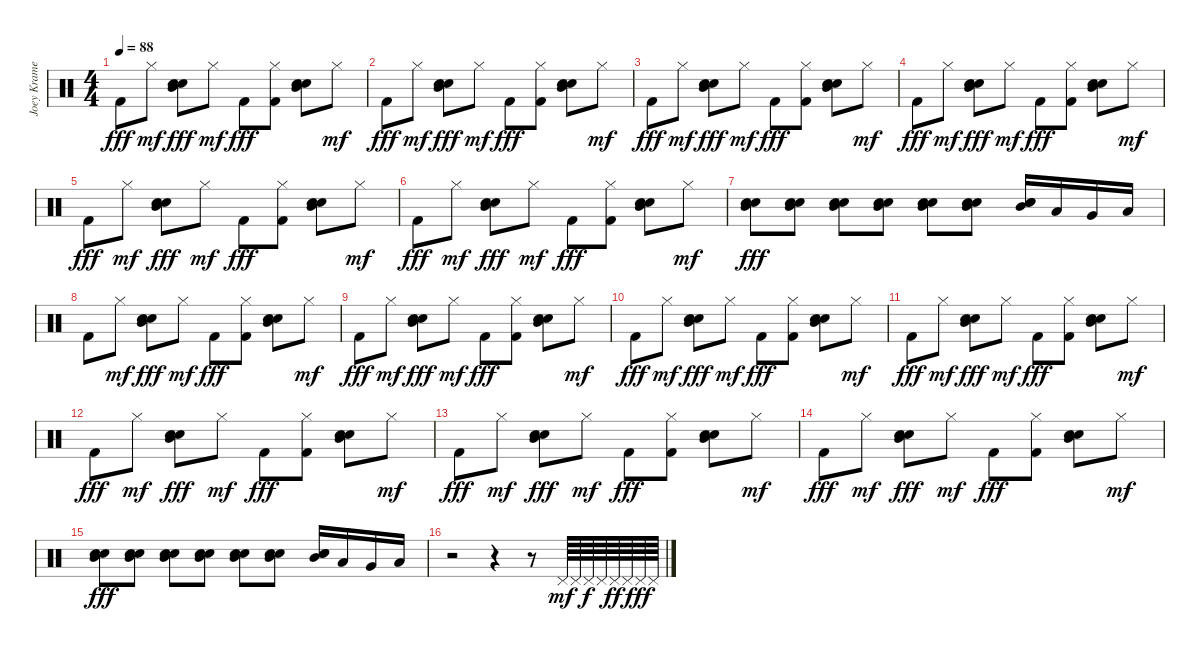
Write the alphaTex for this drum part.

\track ("Joey Kramer" "Joey Krame") {instrument percussion}
\staff {score}
\articulation defaults
\ts (4 4)
\tempo 88
\clef neutral
\ks c "Kick (hit) 2".8{dy fff} "Hi-Hat (closed)".8{dy mf}
("Snare (hit) 2" "Electric Snare (hit)" "Mid Tom (hit)").8{dy fff} "Hi-Hat (closed)".8{dy mf} "Kick (hit) 2".8{dy fff} ("Hi-Hat (closed)" "Kick (hit) 2").8 ("Snare (hit) 2" "Electric Snare (hit)" "Mid Tom (hit)").8 "Hi-Hat (closed)".8{dy mf} |
"Kick (hit) 2".8{dy fff} "Hi-Hat (closed)".8{dy mf} ("Snare (hit) 2" "Electric Snare (hit)" "Mid Tom (hit)").8{dy fff} "Hi-Hat (closed)".8{dy mf} "Kick (hit) 2".8{dy fff} ("Hi-Hat (closed)" "Kick (hit) 2").8 ("Snare (hit) 2" "Electric Snare (hit)" "Mid Tom (hit)").8 "Hi-Hat (closed)".8{dy mf} |
"Kick (hit) 2".8{dy fff} "Hi-Hat (closed)".8{dy mf} ("Snare (hit) 2" "Electric Snare (hit)" "Mid Tom (hit)").8{dy fff} "Hi-Hat (closed)".8{dy mf} "Kick (hit) 2".8{dy fff} ("Hi-Hat (closed)" "Kick (hit) 2").8 ("Snare (hit) 2" "Electric Snare (hit)" "Mid Tom (hit)").8 "Hi-Hat (closed)".8{dy mf} |
"Kick (hit) 2".8{dy fff} "Hi-Hat (closed)".8{dy mf} ("Snare (hit) 2" "Electric Snare (hit)" "Mid Tom (hit)").8{dy fff} "Hi-Hat (closed)".8{dy mf} "Kick (hit) 2".8{dy fff} ("Hi-Hat (closed)" "Kick (hit) 2").8 ("Snare (hit) 2" "Electric Snare (hit)" "Mid Tom (hit)").8 "Hi-Hat (closed)".8{dy mf} |
"Kick (hit) 2".8{dy fff} "Hi-Hat (closed)".8{dy mf} ("Snare (hit) 2" "Electric Snare (hit)" "Mid Tom (hit)").8{dy fff} "Hi-Hat (closed)".8{dy mf} "Kick (hit) 2".8{dy fff} ("Hi-Hat (closed)" "Kick (hit) 2").8 ("Snare (hit) 2" "Electric Snare (hit)" "Mid Tom (hit)").8 "Hi-Hat (closed)".8{dy mf} |
"Kick (hit) 2".8{dy fff} "Hi-Hat (closed)".8{dy mf} ("Snare (hit) 2" "Electric Snare (hit)" "Mid Tom (hit)").8{dy fff} "Hi-Hat (closed)".8{dy mf} "Kick (hit) 2".8{dy fff} ("Hi-Hat (closed)" "Kick (hit) 2").8 ("Snare (hit) 2" "Electric Snare (hit)" "Mid Tom (hit)").8 "Hi-Hat (closed)".8{dy mf} |
("Snare (hit) 2" "Electric Snare (hit)" "Mid Tom (hit)").8{dy fff} ("Snare (hit) 2" "Electric Snare (hit)" "Mid Tom (hit)").8 ("Snare (hit) 2" "Electric Snare (hit)" "Mid Tom (hit)").8 ("Snare (hit) 2" "Electric Snare (hit)" "Mid Tom (hit)").8 ("Snare (hit) 2" "Electric Snare (hit)" "Mid Tom (hit)").8 ("Snare (hit) 2" "Electric Snare (hit)" "Mid Tom (hit)").8 ("Snare (hit) 2" "Electric Snare (hit)" "Mid Tom (hit)").16 "Low Tom (hit)".16 "Very Low Tom (hit)".16 "Low Floor Tom (hit)".16 |
"Kick (hit) 2".8 "Hi-Hat (closed)".8{dy mf} ("Snare (hit) 2" "Electric Snare (hit)" "Mid Tom (hit)").8{dy fff} "Hi-Hat (closed)".8{dy mf} "Kick (hit) 2".8{dy fff} ("Hi-Hat (closed)" "Kick (hit) 2").8 ("Snare (hit) 2" "Electric Snare (hit)" "Mid Tom (hit)").8 "Hi-Hat (closed)".8{dy mf} |
"Kick (hit) 2".8{dy fff} "Hi-Hat (closed)".8{dy mf} ("Snare (hit) 2" "Electric Snare (hit)" "Mid Tom (hit)").8{dy fff} "Hi-Hat (closed)".8{dy mf} "Kick (hit) 2".8{dy fff} ("Hi-Hat (closed)" "Kick (hit) 2").8 ("Snare (hit) 2" "Electric Snare (hit)" "Mid Tom (hit)").8 "Hi-Hat (closed)".8{dy mf} |
"Kick (hit) 2".8{dy fff} "Hi-Hat (closed)".8{dy mf} ("Snare (hit) 2" "Electric Snare (hit)" "Mid Tom (hit)").8{dy fff} "Hi-Hat (closed)".8{dy mf} "Kick (hit) 2".8{dy fff} ("Hi-Hat (closed)" "Kick (hit) 2").8 ("Snare (hit) 2" "Electric Snare (hit)" "Mid Tom (hit)").8 "Hi-Hat (closed)".8{dy mf} |
"Kick (hit) 2".8{dy fff} "Hi-Hat (closed)".8{dy mf} ("Snare (hit) 2" "Electric Snare (hit)" "Mid Tom (hit)").8{dy fff} "Hi-Hat (closed)".8{dy mf} "Kick (hit) 2".8{dy fff} ("Hi-Hat (closed)" "Kick (hit) 2").8 ("Snare (hit) 2" "Electric Snare (hit)" "Mid Tom (hit)").8 "Hi-Hat (closed)".8{dy mf} |
"Kick (hit) 2".8{dy fff} "Hi-Hat (closed)".8{dy mf} ("Snare (hit) 2" "Electric Snare (hit)" "Mid Tom (hit)").8{dy fff} "Hi-Hat (closed)".8{dy mf} "Kick (hit) 2".8{dy fff} ("Hi-Hat (closed)" "Kick (hit) 2").8 ("Snare (hit) 2" "Electric Snare (hit)" "Mid Tom (hit)").8 "Hi-Hat (closed)".8{dy mf} |
"Kick (hit) 2".8{dy fff} "Hi-Hat (closed)".8{dy mf} ("Snare (hit) 2" "Electric Snare (hit)" "Mid Tom (hit)").8{dy fff} "Hi-Hat (closed)".8{dy mf} "Kick (hit) 2".8{dy fff} ("Hi-Hat (closed)" "Kick (hit) 2").8 ("Snare (hit) 2" "Electric Snare (hit)" "Mid Tom (hit)").8 "Hi-Hat (closed)".8{dy mf} |
"Kick (hit) 2".8{dy fff} "Hi-Hat (closed)".8{dy mf} ("Snare (hit) 2" "Electric Snare (hit)" "Mid Tom (hit)").8{dy fff} "Hi-Hat (closed)".8{dy mf} "Kick (hit) 2".8{dy fff} ("Hi-Hat (closed)" "Kick (hit) 2").8 ("Snare (hit) 2" "Electric Snare (hit)" "Mid Tom (hit)").8 "Hi-Hat (closed)".8{dy mf} |
("Snare (hit) 2" "Electric Snare (hit)" "Mid Tom (hit)").8{dy fff} ("Snare (hit) 2" "Electric Snare (hit)" "Mid Tom (hit)").8 ("Snare (hit) 2" "Electric Snare (hit)" "Mid Tom (hit)").8 ("Snare (hit) 2" "Electric Snare (hit)" "Mid Tom (hit)").8 ("Snare (hit) 2" "Electric Snare (hit)" "Mid Tom (hit)").8 ("Snare (hit) 2" "Electric Snare (hit)" "Mid Tom (hit)").8 ("Snare (hit) 2" "Electric Snare (hit)" "Mid Tom (hit)").16 "Low Tom (hit)".16 "Very Low Tom (hit)".16 "Low Floor Tom (hit)".16 |
r.2 r.4 r.8 "Pedal Hi-Hat (hit)".64{dy mf} "Pedal Hi-Hat (hit)".64 "Pedal Hi-Hat (hit)".64{dy f} "Pedal Hi-Hat (hit)".64 "Pedal Hi-Hat (hit)".64{dy ff} "Pedal Hi-Hat (hit)".64 "Pedal Hi-Hat (hit)".64{dy fff} "Pedal Hi-Hat (hit)".64
